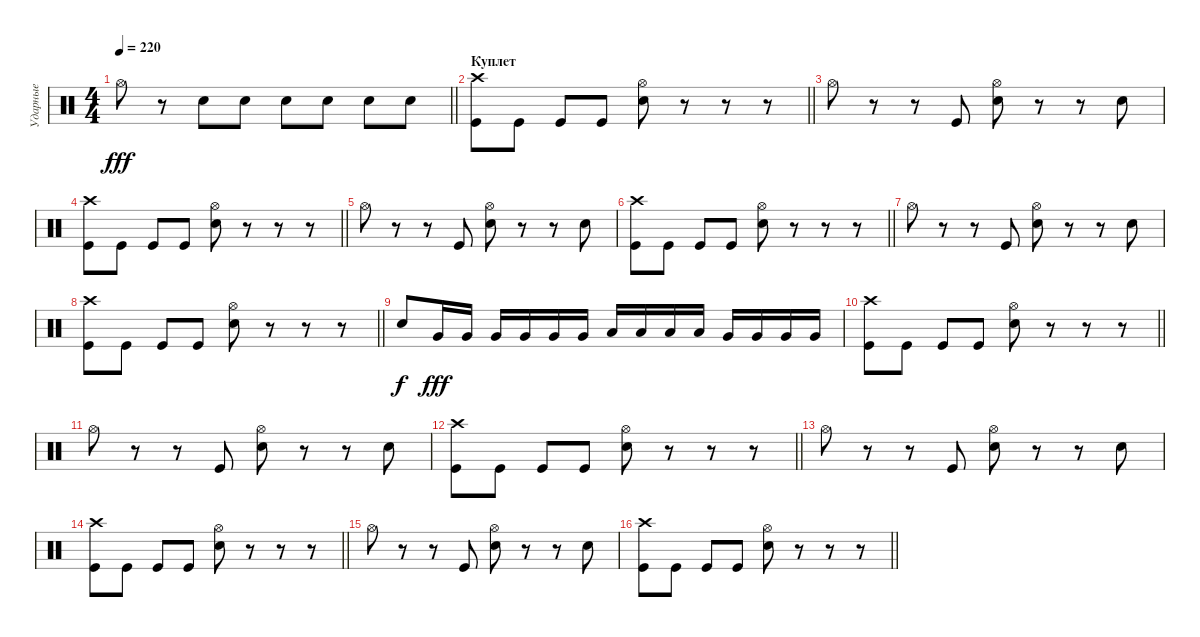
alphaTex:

\track ("Ударные" "Ударные") {instrument percussion}
\staff {score}
\articulation defaults
\ts (4 4)
\tempo 220
\clef neutral
\barLineRight lightlight
\ks c "Hi-Hat (open)".8{dy fff}
r.8 "Snare (hit) 2".8 "Snare (hit) 2".8 "Snare (hit) 2".8 "Snare (hit) 2".8 "Snare (hit) 2".8 "Snare (hit) 2".8 |
\section ("" "Куплет")
\barLineRight lightlight
("Crash high (hit)" "Kick (hit)").8 "Kick (hit)".8 "Kick (hit)".8 "Kick (hit)".8 ("Hi-Hat (open)" "Snare (hit) 2").8 r.8 r.8 r.8 |
"Hi-Hat (open)".8 r.8 r.8 "Kick (hit)".8 ("Hi-Hat (open)" "Snare (hit) 2").8 r.8 r.8 "Snare (hit) 2".8 |
\barLineRight lightlight
("Crash high (hit)" "Kick (hit)").8 "Kick (hit)".8 "Kick (hit)".8 "Kick (hit)".8 ("Hi-Hat (open)" "Snare (hit) 2").8 r.8 r.8 r.8 |
"Hi-Hat (open)".8 r.8 r.8 "Kick (hit)".8 ("Hi-Hat (open)" "Snare (hit) 2").8 r.8 r.8 "Snare (hit) 2".8 |
\barLineRight lightlight
("Crash high (hit)" "Kick (hit)").8 "Kick (hit)".8 "Kick (hit)".8 "Kick (hit)".8 ("Hi-Hat (open)" "Snare (hit) 2").8 r.8 r.8 r.8 |
"Hi-Hat (open)".8 r.8 r.8 "Kick (hit)".8 ("Hi-Hat (open)" "Snare (hit) 2").8 r.8 r.8 "Snare (hit) 2".8 |
\barLineRight lightlight
("Crash high (hit)" "Kick (hit)").8 "Kick (hit)".8 "Kick (hit)".8 "Kick (hit)".8 ("Hi-Hat (open)" "Snare (hit) 2").8 r.8 r.8 r.8 |
"Snare (hit) 2".8{dy f} "Very Low Tom (hit)".16{dy fff} "Very Low Tom (hit)".16 "Very Low Tom (hit)".16 "Very Low Tom (hit)".16 "Very Low Tom (hit)".16 "Very Low Tom (hit)".16 "Low Floor Tom (hit)".16 "Low Floor Tom (hit)".16 "Low Floor Tom (hit)".16 "Low Floor Tom (hit)".16 "Very Low Tom (hit)".16 "Very Low Tom (hit)".16 "Very Low Tom (hit)".16 "Very Low Tom (hit)".16 |
\barLineRight lightlight
("Crash high (hit)" "Kick (hit)").8 "Kick (hit)".8 "Kick (hit)".8 "Kick (hit)".8 ("Hi-Hat (open)" "Snare (hit) 2").8 r.8 r.8 r.8 |
"Hi-Hat (open)".8 r.8 r.8 "Kick (hit)".8 ("Hi-Hat (open)" "Snare (hit) 2").8 r.8 r.8 "Snare (hit) 2".8 |
\barLineRight lightlight
("Crash high (hit)" "Kick (hit)").8 "Kick (hit)".8 "Kick (hit)".8 "Kick (hit)".8 ("Hi-Hat (open)" "Snare (hit) 2").8 r.8 r.8 r.8 |
"Hi-Hat (open)".8 r.8 r.8 "Kick (hit)".8 ("Hi-Hat (open)" "Snare (hit) 2").8 r.8 r.8 "Snare (hit) 2".8 |
\barLineRight lightlight
("Crash high (hit)" "Kick (hit)").8 "Kick (hit)".8 "Kick (hit)".8 "Kick (hit)".8 ("Hi-Hat (open)" "Snare (hit) 2").8 r.8 r.8 r.8 |
"Hi-Hat (open)".8 r.8 r.8 "Kick (hit)".8 ("Hi-Hat (open)" "Snare (hit) 2").8 r.8 r.8 "Snare (hit) 2".8 |
\barLineRight lightlight
("Crash high (hit)" "Kick (hit)").8 "Kick (hit)".8 "Kick (hit)".8 "Kick (hit)".8 ("Hi-Hat (open)" "Snare (hit) 2").8 r.8 r.8 r.8
